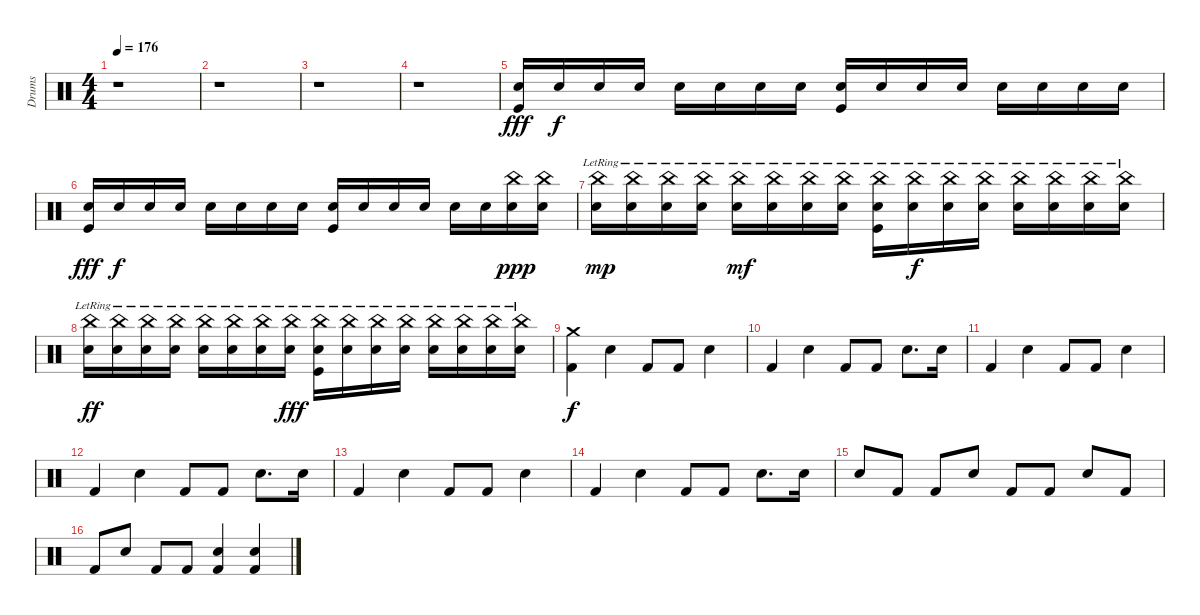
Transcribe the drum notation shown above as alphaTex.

\track ("Drums" "Drums") {instrument percussion}
\staff {score}
\articulation defaults
\ts (4 4)
\tempo 176
\clef neutral
\ks c
r.1{dy fff} |
r.1 |
r.1 |
r.1 |
("Snare (hit) 2" "Kick (hit)").16 "Snare (hit) 2".16{dy f} "Snare (hit) 2".16 "Snare (hit) 2".16 "Snare (hit) 2".16 "Snare (hit) 2".16 "Snare (hit) 2".16 "Snare (hit) 2".16 ("Snare (hit) 2" "Kick (hit)").16 "Snare (hit) 2".16 "Snare (hit) 2".16 "Snare (hit) 2".16 "Snare (hit) 2".16 "Snare (hit) 2".16 "Snare (hit) 2".16 "Snare (hit) 2".16 |
("Snare (hit) 2" "Kick (hit)").16{dy fff} "Snare (hit) 2".16{dy f} "Snare (hit) 2".16 "Snare (hit) 2".16 "Snare (hit) 2".16 "Snare (hit) 2".16 "Snare (hit) 2".16 "Snare (hit) 2".16 ("Snare (hit) 2" "Kick (hit)").16 "Snare (hit) 2".16 "Snare (hit) 2".16 "Snare (hit) 2".16 "Snare (hit) 2".16 "Snare (hit) 2".16 ("China (hit)" "Snare (hit) 2").16{dy ppp} ("China (hit)" "Snare (hit) 2").16 |
("China (hit)"{lr} "Snare (hit) 2").16{dy mp} ("China (hit)"{lr} "Snare (hit) 2").16 ("China (hit)"{lr} "Snare (hit) 2").16 ("China (hit)"{lr} "Snare (hit) 2").16 ("China (hit)"{lr} "Snare (hit) 2").16{dy mf} ("China (hit)"{lr} "Snare (hit) 2").16 ("China (hit)"{lr} "Snare (hit) 2").16 ("China (hit)"{lr} "Snare (hit) 2").16 ("China (hit)"{lr} "Snare (hit) 2" "Kick (hit)").16 ("China (hit)"{lr} "Snare (hit) 2").16{dy f} ("China (hit)"{lr} "Snare (hit) 2").16 ("China (hit)"{lr} "Snare (hit) 2").16 ("China (hit)"{lr} "Snare (hit) 2").16 ("China (hit)"{lr} "Snare (hit) 2").16 ("China (hit)"{lr} "Snare (hit) 2").16 ("China (hit)"{lr} "Snare (hit) 2").16 |
("China (hit)"{lr} "Snare (hit) 2").16{dy ff} ("China (hit)"{lr} "Snare (hit) 2").16 ("China (hit)"{lr} "Snare (hit) 2").16 ("China (hit)"{lr} "Snare (hit) 2").16 ("China (hit)"{lr} "Snare (hit) 2").16 ("China (hit)"{lr} "Snare (hit) 2").16 ("China (hit)"{lr} "Snare (hit) 2").16 ("China (hit)"{lr} "Snare (hit) 2").16{dy fff} ("China (hit)"{lr} "Snare (hit) 2" "Kick (hit)").16 ("China (hit)"{lr} "Snare (hit) 2").16 ("China (hit)"{lr} "Snare (hit) 2").16 ("China (hit)"{lr} "Snare (hit) 2").16 ("China (hit)"{lr} "Snare (hit) 2").16 ("China (hit)"{lr} "Snare (hit) 2").16 ("China (hit)"{lr} "Snare (hit) 2").16 ("China (hit)"{lr} "Snare (hit) 2").16 |
("Kick (hit) 2" "Crash medium (hit)").4{dy f volume 15} "Snare (hit) 2".4 "Kick (hit) 2".8 "Kick (hit) 2".8 "Snare (hit) 2".4 |
"Kick (hit) 2".4 "Snare (hit) 2".4 "Kick (hit) 2".8 "Kick (hit) 2".8 "Snare (hit) 2".8{d} "Snare (hit) 2".16 |
"Kick (hit) 2".4 "Snare (hit) 2".4 "Kick (hit) 2".8 "Kick (hit) 2".8 "Snare (hit) 2".4 |
"Kick (hit) 2".4 "Snare (hit) 2".4 "Kick (hit) 2".8 "Kick (hit) 2".8 "Snare (hit) 2".8{d} "Snare (hit) 2".16 |
"Kick (hit) 2".4 "Snare (hit) 2".4 "Kick (hit) 2".8 "Kick (hit) 2".8 "Snare (hit) 2".4 |
"Kick (hit) 2".4 "Snare (hit) 2".4 "Kick (hit) 2".8 "Kick (hit) 2".8 "Snare (hit) 2".8{d} "Snare (hit) 2".16 |
"Snare (hit) 2".8 "Kick (hit) 2".8 "Kick (hit) 2".8 "Snare (hit) 2".8 "Kick (hit) 2".8 "Kick (hit) 2".8 "Snare (hit) 2".8 "Kick (hit) 2".8 |
"Kick (hit) 2".8 "Snare (hit) 2".8 "Kick (hit) 2".8 "Kick (hit) 2".8 ("Kick (hit) 2" "Snare (hit) 2").4 ("Kick (hit) 2" "Snare (hit) 2").4
